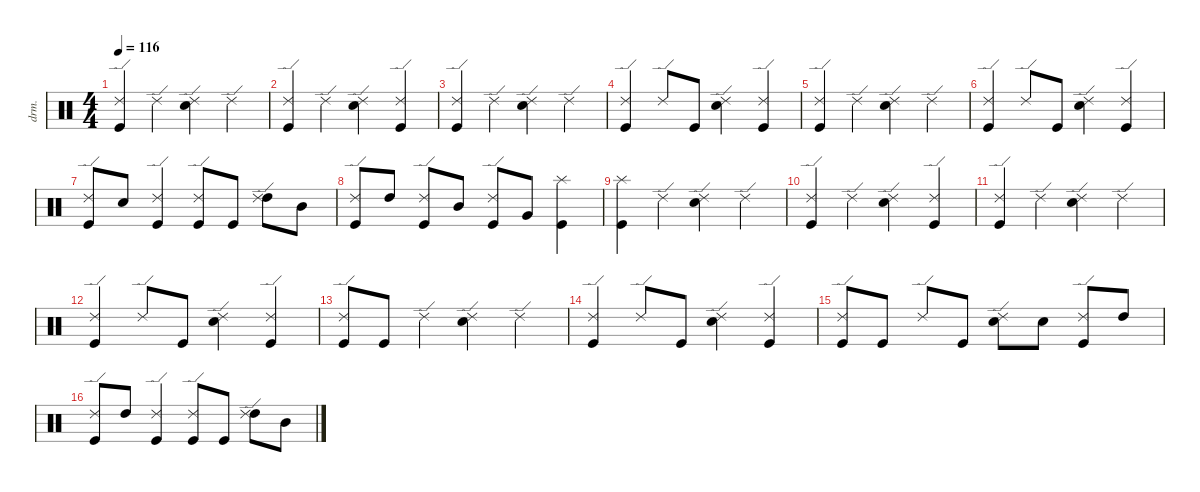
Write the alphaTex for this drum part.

\defaultSystemsLayout 4
\hideDynamics
\bracketExtendMode nobrackets
\otherSystemsTrackNameOrientation horizontal
\track ("Drum" "drm.") {instrument percussion}
\staff {score}
\articulation defaults
\ts (4 4)
\tempo 116
\clef neutral
\ks c
("Kick (hit)" "Ride (edge) 2").4{dy f beam Up} "Ride (edge) 2".4{beam Down} ("Snare (hit) 2" "Ride (edge) 2").4{beam Down} "Ride (edge) 2".4{beam Down} |
("Kick (hit)" "Ride (edge) 2").4{beam Up} "Ride (edge) 2".4{beam Down} ("Snare (hit) 2" "Ride (edge) 2").4{beam Down} ("Kick (hit)" "Ride (edge) 2").4{beam Up} |
("Kick (hit)" "Ride (edge) 2").4{beam Up} "Ride (edge) 2".4{beam Down} ("Snare (hit) 2" "Ride (edge) 2").4{beam Down} "Ride (edge) 2".4{beam Down} |
("Kick (hit)" "Ride (edge) 2").4{beam Up} "Ride (edge) 2".8{beam Up} "Kick (hit)".8{beam Up} ("Snare (hit) 2" "Ride (edge) 2").4{beam Down} ("Kick (hit)" "Ride (edge) 2").4{beam Up} |
("Kick (hit)" "Ride (edge) 2").4{beam Up} "Ride (edge) 2".4{beam Down} ("Snare (hit) 2" "Ride (edge) 2").4{beam Down} "Ride (edge) 2".4{beam Down} |
("Kick (hit)" "Ride (edge) 2").4{beam Up} "Ride (edge) 2".8{beam Up} "Kick (hit)".8{beam Up} ("Snare (hit) 2" "Ride (edge) 2").4{beam Down} ("Kick (hit)" "Ride (edge) 2").4{beam Up} |
("Kick (hit)" "Ride (edge) 2").8{beam Up} "Snare (hit) 2".8{beam Up} ("Kick (hit)" "Ride (edge) 2").4{beam Up} ("Kick (hit)" "Ride (edge) 2").8{beam Up} "Kick (hit)".8{beam Up} ("High Tom (hit)" "Ride (edge) 2").8{beam Down} "Mid Tom (hit)".8{beam Down} |
("Kick (hit)" "Ride (edge) 2").8{beam Up} "High Tom (hit)".8{beam Up} ("Kick (hit)" "Ride (edge) 2").8{beam Up} "Mid Tom (hit)".8{beam Up} ("Kick (hit)" "Ride (edge) 2").8{beam Up} "Very Low Tom (hit)".8{beam Up} ("Kick (hit)" "Splash (hit)").4{beam Down} |
("Kick (hit)" "Splash (hit)").4{beam Down} "Ride (edge) 2".4{beam Down} ("Snare (hit) 2" "Ride (edge) 2").4{beam Down} "Ride (edge) 2".4{beam Down} |
("Kick (hit)" "Ride (edge) 2").4{beam Up} "Ride (edge) 2".4{beam Down} ("Snare (hit) 2" "Ride (edge) 2").4{beam Down} ("Kick (hit)" "Ride (edge) 2").4{beam Up} |
("Kick (hit)" "Ride (edge) 2").4{beam Up} "Ride (edge) 2".4{beam Down} ("Snare (hit) 2" "Ride (edge) 2").4{beam Down} "Ride (edge) 2".4{beam Down} |
("Kick (hit)" "Ride (edge) 2").4{beam Up} "Ride (edge) 2".8{beam Up} "Kick (hit)".8{beam Up} ("Snare (hit) 2" "Ride (edge) 2").4{beam Down} ("Kick (hit)" "Ride (edge) 2").4{beam Up} |
("Kick (hit)" "Ride (edge) 2").8{beam Up} "Kick (hit)".8{beam Up} "Ride (edge) 2".4{beam Down} ("Snare (hit) 2" "Ride (edge) 2").4{beam Down} "Ride (edge) 2".4{beam Down} |
("Kick (hit)" "Ride (edge) 2").4{beam Up} "Ride (edge) 2".8{beam Up} "Kick (hit)".8{beam Up} ("Snare (hit) 2" "Ride (edge) 2").4{beam Down} ("Kick (hit)" "Ride (edge) 2").4{beam Up} |
("Kick (hit)" "Ride (edge) 2").8{beam Up} "Kick (hit)".8{beam Up} "Ride (edge) 2".8{beam Up} "Kick (hit)".8{beam Up} ("Snare (hit) 2" "Ride (edge) 2").8{beam Down} "Snare (hit) 2".8{beam Down} ("Kick (hit)" "Ride (edge) 2").8{beam Up} "High Tom (hit)".8{beam Up} |
("Kick (hit)" "Ride (edge) 2").8{beam Up} "High Tom (hit)".8{beam Up} ("Kick (hit)" "Ride (edge) 2").4{beam Up} ("Kick (hit)" "Ride (edge) 2").8{beam Up} "Kick (hit)".8{beam Up} ("High Tom (hit)" "Ride (edge) 2").8{beam Down} "Mid Tom (hit)".8{beam Down}
